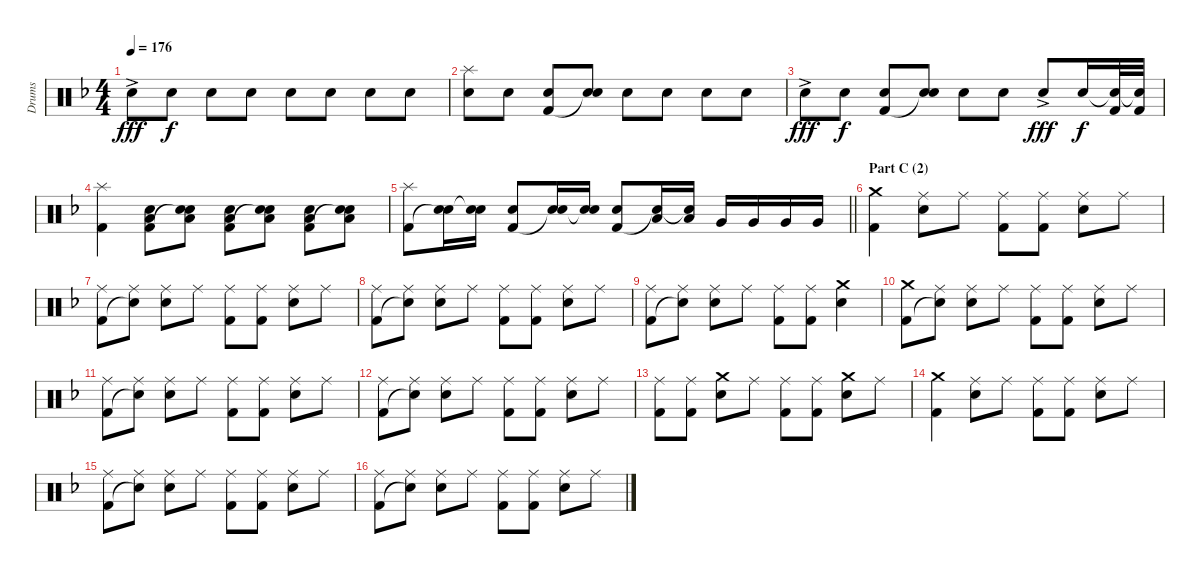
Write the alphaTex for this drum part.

\track ("Drums" "Drums") {instrument percussion}
\staff {score}
\articulation defaults
\ts (4 4)
\tempo 176
\clef neutral
\ks f "Electric Snare (hit)"{ac}.8{dy fff} "Electric Snare (hit)".8{dy f} "Electric Snare (hit)".8 "Electric Snare (hit)".8 "Electric Snare (hit)".8 "Electric Snare (hit)".8 "Electric Snare (hit)".8 "Electric Snare (hit)".8
|
("Splash (hit)" "Electric Snare (hit)").8 "Electric Snare (hit)".8 ("Electric Snare (hit)" "Kick (hit) 2").8 ("Electric Snare (hit)" "Snare (hit)"{t}).8 "Electric Snare (hit)".8 "Electric Snare (hit)".8 "Electric Snare (hit)".8 "Electric Snare (hit)".8 |
"Electric Snare (hit)"{ac}.8{dy fff} "Electric Snare (hit)".8{dy f} ("Electric Snare (hit)" "Kick (hit) 2").8 ("Electric Snare (hit)" "Snare (hit)"{t}).8 "Electric Snare (hit)".8 "Electric Snare (hit)".8 "Electric Snare (hit)"{ac}.8{dy fff} "Electric Snare (hit)".16{dy f} ("Snare (hit)"{t} "Kick (hit) 2").32 ("Snare (hit)"{t} "Kick (hit) 2").32 |
("Splash (hit)" "Kick (hit) 2").4 ("Electric Snare (hit)" "Low Floor Tom (hit)" "Kick (hit) 2").8 ("Electric Snare (hit)" "Low Floor Tom (hit)" "Snare (hit)"{t}).8 ("Electric Snare (hit)" "Low Floor Tom (hit)" "Kick (hit) 2").8 ("Electric Snare (hit)" "Low Floor Tom (hit)" "Snare (hit)"{t}).8 ("Electric Snare (hit)" "Low Floor Tom (hit)" "Kick (hit) 2").8 ("Electric Snare (hit)" "Low Floor Tom (hit)" "Snare (hit)"{t}).8 |
\barLineRight lightlight
("Splash (hit)" "Kick (hit) 2").8 ("Electric Snare (hit)" "Snare (hit)"{t}).16 ("Electric Snare (hit)" "Snare (hit)"{t}).16 ("Electric Snare (hit)" "Kick (hit) 2").8 ("Electric Snare (hit)" "Snare (hit)"{t}).16 ("Electric Snare (hit)" "Snare (hit)"{t}).16 ("Electric Snare (hit)" "Kick (hit) 2").8 ("Low Tom (hit)" "Snare (hit)"{t}).16 ("Low Tom (hit)" "Snare (hit)"{t}).16 "Very Low Tom (hit)".16 "Very Low Tom (hit)".16 "Very Low Tom (hit)".16 "Very Low Tom (hit)".16 |
\section ("" "Part C (2)")
("Crash medium (hit)" "Kick (hit) 2").4 ("Ride (middle)" "Electric Snare (hit)").8 "Ride (middle)".8 ("Ride (middle)" "Kick (hit) 2").8 ("Ride (middle)" "Kick (hit) 2").8 ("Ride (middle)" "Electric Snare (hit)").8 "Ride (middle)".8 |
("Ride (middle)" "Kick (hit) 2").8 ("Ride (middle)" "Snare (hit)"{t}).8 ("Ride (middle)" "Electric Snare (hit)").8 "Ride (middle)".8 ("Ride (middle)" "Kick (hit) 2").8 ("Ride (middle)" "Kick (hit) 2").8 ("Ride (middle)" "Electric Snare (hit)").8 "Ride (middle)".8 |
("Ride (middle)" "Kick (hit) 2").8 ("Ride (middle)" "Snare (hit)"{t}).8 ("Ride (middle)" "Electric Snare (hit)").8 "Ride (middle)".8 ("Ride (middle)" "Kick (hit) 2").8 ("Ride (middle)" "Kick (hit) 2").8 ("Ride (middle)" "Electric Snare (hit)").8 "Ride (middle)".8 |
("Ride (middle)" "Kick (hit) 2").8 ("Ride (middle)" "Snare (hit)"{t}).8 ("Ride (middle)" "Electric Snare (hit)").8 "Ride (middle)".8 ("Ride (middle)" "Kick (hit) 2").8 ("Ride (middle)" "Kick (hit) 2").8 ("Crash medium (hit)" "Electric Snare (hit)").4 |
("Crash medium (hit)" "Kick (hit) 2").8 ("Ride (middle)" "Snare (hit)"{t}).8 ("Ride (middle)" "Electric Snare (hit)").8 "Ride (middle)".8 ("Ride (middle)" "Kick (hit) 2").8 ("Ride (middle)" "Kick (hit) 2").8 ("Ride (middle)" "Electric Snare (hit)").8 "Ride (middle)".8 |
("Ride (middle)" "Kick (hit) 2").8 ("Ride (middle)" "Snare (hit)"{t}).8 ("Ride (middle)" "Electric Snare (hit)").8 "Ride (middle)".8 ("Ride (middle)" "Kick (hit) 2").8 ("Ride (middle)" "Kick (hit) 2").8 ("Ride (middle)" "Electric Snare (hit)").8 "Ride (middle)".8 |
("Ride (middle)" "Kick (hit) 2").8 ("Ride (middle)" "Snare (hit)"{t}).8 ("Ride (middle)" "Electric Snare (hit)").8 "Ride (middle)".8 ("Ride (middle)" "Kick (hit) 2").8 ("Ride (middle)" "Kick (hit) 2").8 ("Ride (middle)" "Electric Snare (hit)").8 "Ride (middle)".8 |
("Ride (middle)" "Kick (hit) 2").8 ("Ride (middle)" "Kick (hit) 2").8 ("Crash medium (hit)" "Electric Snare (hit)").8 "Ride (middle)".8 ("Ride (middle)" "Kick (hit) 2").8 ("Ride (middle)" "Kick (hit) 2").8 ("Crash medium (hit)" "Electric Snare (hit)").8 "Ride (middle)".8 |
("Crash medium (hit)" "Kick (hit) 2").4 ("Ride (middle)" "Electric Snare (hit)").8 "Ride (middle)".8 ("Ride (middle)" "Kick (hit) 2").8 ("Ride (middle)" "Kick (hit) 2").8 ("Ride (middle)" "Electric Snare (hit)").8 "Ride (middle)".8 |
("Ride (middle)" "Kick (hit) 2").8 ("Ride (middle)" "Snare (hit)"{t}).8 ("Ride (middle)" "Electric Snare (hit)").8 "Ride (middle)".8 ("Ride (middle)" "Kick (hit) 2").8 ("Ride (middle)" "Kick (hit) 2").8 ("Ride (middle)" "Electric Snare (hit)").8 "Ride (middle)".8 |
("Ride (middle)" "Kick (hit) 2").8 ("Ride (middle)" "Snare (hit)"{t}).8 ("Ride (middle)" "Electric Snare (hit)").8 "Ride (middle)".8 ("Ride (middle)" "Kick (hit) 2").8 ("Ride (middle)" "Kick (hit) 2").8 ("Ride (middle)" "Electric Snare (hit)").8 "Ride (middle)".8
